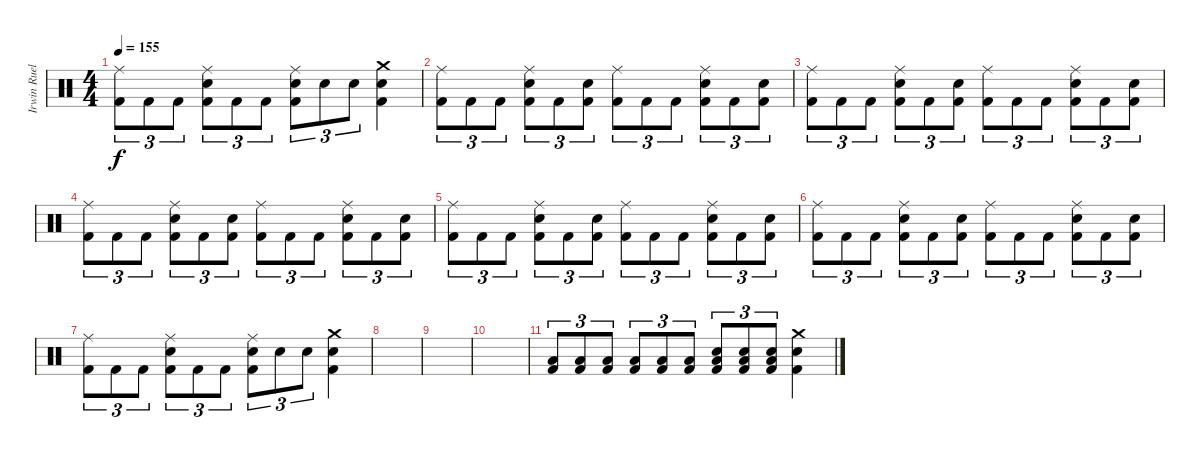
\track ("Irwin Ruelas" "Irwin Ruel") {instrument percussion}
\staff {score}
\articulation defaults
\ts (4 4)
\tempo 155
\clef neutral
\ks c
("Ride (middle)" "Kick (hit) 2").8{tu (3 2) dy f} "Kick (hit) 2".8{tu (3 2)} "Kick (hit) 2".8{tu (3 2)} ("Ride (middle)" "Electric Snare (hit)" "Kick (hit) 2").8{tu (3 2)} "Kick (hit) 2".8{tu (3 2)} "Kick (hit) 2".8{tu (3 2)} ("Ride (middle)" "Electric Snare (hit)" "Kick (hit) 2").8{tu (3 2)} "Electric Snare (hit)".8{tu (3 2)} "Electric Snare (hit)".8{tu (3 2)} ("Crash medium (hit)" "Electric Snare (hit)" "Kick (hit) 2").4 |
("Ride (middle)" "Kick (hit) 2").8{tu (3 2)} "Kick (hit) 2".8{tu (3 2)} "Kick (hit) 2".8{tu (3 2)} ("Ride (middle)" "Electric Snare (hit)" "Kick (hit) 2").8{tu (3 2)} "Kick (hit) 2".8{tu (3 2)} ("Electric Snare (hit)" "Kick (hit) 2").8{tu (3 2)} ("Ride (middle)" "Kick (hit) 2").8{tu (3 2)} "Kick (hit) 2".8{tu (3 2)} "Kick (hit) 2".8{tu (3 2)} ("Ride (middle)" "Electric Snare (hit)" "Kick (hit) 2").8{tu (3 2)} "Kick (hit) 2".8{tu (3 2)} ("Electric Snare (hit)" "Kick (hit) 2").8{tu (3 2)} |
("Ride (middle)" "Kick (hit) 2").8{tu (3 2)} "Kick (hit) 2".8{tu (3 2)} "Kick (hit) 2".8{tu (3 2)} ("Ride (middle)" "Electric Snare (hit)" "Kick (hit) 2").8{tu (3 2)} "Kick (hit) 2".8{tu (3 2)} ("Electric Snare (hit)" "Kick (hit) 2").8{tu (3 2)} ("Ride (middle)" "Kick (hit) 2").8{tu (3 2)} "Kick (hit) 2".8{tu (3 2)} "Kick (hit) 2".8{tu (3 2)} ("Ride (middle)" "Electric Snare (hit)" "Kick (hit) 2").8{tu (3 2)} "Kick (hit) 2".8{tu (3 2)} ("Electric Snare (hit)" "Kick (hit) 2").8{tu (3 2)} |
("Ride (middle)" "Kick (hit) 2").8{tu (3 2)} "Kick (hit) 2".8{tu (3 2)} "Kick (hit) 2".8{tu (3 2)} ("Ride (middle)" "Electric Snare (hit)" "Kick (hit) 2").8{tu (3 2)} "Kick (hit) 2".8{tu (3 2)} ("Electric Snare (hit)" "Kick (hit) 2").8{tu (3 2)} ("Ride (middle)" "Kick (hit) 2").8{tu (3 2)} "Kick (hit) 2".8{tu (3 2)} "Kick (hit) 2".8{tu (3 2)} ("Ride (middle)" "Electric Snare (hit)" "Kick (hit) 2").8{tu (3 2)} "Kick (hit) 2".8{tu (3 2)} ("Electric Snare (hit)" "Kick (hit) 2").8{tu (3 2)} |
("Ride (middle)" "Kick (hit) 2").8{tu (3 2)} "Kick (hit) 2".8{tu (3 2)} "Kick (hit) 2".8{tu (3 2)} ("Ride (middle)" "Electric Snare (hit)" "Kick (hit) 2").8{tu (3 2)} "Kick (hit) 2".8{tu (3 2)} ("Electric Snare (hit)" "Kick (hit) 2").8{tu (3 2)} ("Ride (middle)" "Kick (hit) 2").8{tu (3 2)} "Kick (hit) 2".8{tu (3 2)} "Kick (hit) 2".8{tu (3 2)} ("Ride (middle)" "Electric Snare (hit)" "Kick (hit) 2").8{tu (3 2)} "Kick (hit) 2".8{tu (3 2)} ("Electric Snare (hit)" "Kick (hit) 2").8{tu (3 2)} |
("Ride (middle)" "Kick (hit) 2").8{tu (3 2)} "Kick (hit) 2".8{tu (3 2)} "Kick (hit) 2".8{tu (3 2)} ("Ride (middle)" "Electric Snare (hit)" "Kick (hit) 2").8{tu (3 2)} "Kick (hit) 2".8{tu (3 2)} ("Electric Snare (hit)" "Kick (hit) 2").8{tu (3 2)} ("Ride (middle)" "Kick (hit) 2").8{tu (3 2)} "Kick (hit) 2".8{tu (3 2)} "Kick (hit) 2".8{tu (3 2)} ("Ride (middle)" "Electric Snare (hit)" "Kick (hit) 2").8{tu (3 2)} "Kick (hit) 2".8{tu (3 2)} ("Electric Snare (hit)" "Kick (hit) 2").8{tu (3 2)} |
("Ride (middle)" "Kick (hit) 2").8{tu (3 2)} "Kick (hit) 2".8{tu (3 2)} "Kick (hit) 2".8{tu (3 2)} ("Ride (middle)" "Electric Snare (hit)" "Kick (hit) 2").8{tu (3 2)} "Kick (hit) 2".8{tu (3 2)} "Kick (hit) 2".8{tu (3 2)} ("Ride (middle)" "Electric Snare (hit)" "Kick (hit) 2").8{tu (3 2)} "Electric Snare (hit)".8{tu (3 2)} "Electric Snare (hit)".8{tu (3 2)} ("Crash medium (hit)" "Electric Snare (hit)" "Kick (hit) 2").4 |
|
|
|
("Low Floor Tom (hit)" "Kick (hit) 2").8{tu (3 2)} ("Low Floor Tom (hit)" "Kick (hit) 2").8{tu (3 2)} ("Low Floor Tom (hit)" "Kick (hit) 2").8{tu (3 2)} ("Low Floor Tom (hit)" "Kick (hit) 2").8{tu (3 2)} ("Low Floor Tom (hit)" "Kick (hit) 2").8{tu (3 2)} ("Low Floor Tom (hit)" "Kick (hit) 2").8{tu (3 2)} ("Low Floor Tom (hit)" "Electric Snare (hit)" "Kick (hit) 2").8{tu (3 2)} ("Low Floor Tom (hit)" "Electric Snare (hit)" "Kick (hit) 2").8{tu (3 2)} ("Low Floor Tom (hit)" "Electric Snare (hit)" "Kick (hit) 2").8{tu (3 2)} ("Crash medium (hit)" "Electric Snare (hit)" "Kick (hit) 2").4
